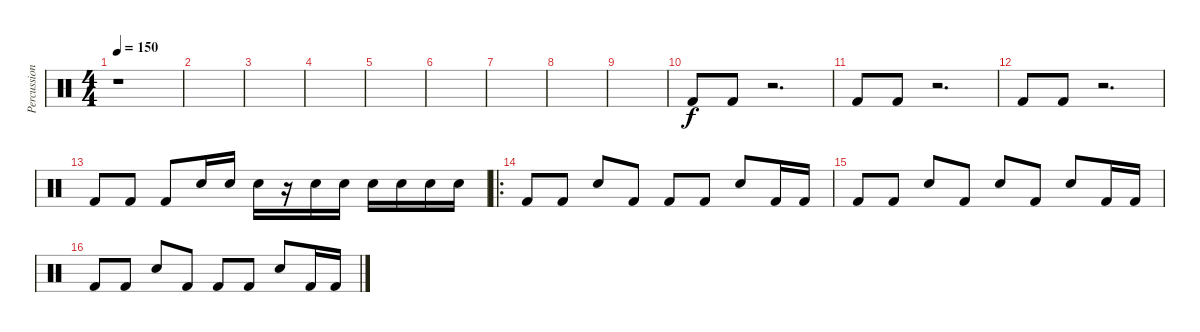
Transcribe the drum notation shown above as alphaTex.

\track ("Percussions" "Percussion") {instrument percussion}
\staff {score}
\articulation defaults
\ts (4 4)
\tempo 150
\clef neutral
\ks c
r.1{dy f} |
|
|
|
|
|
|
|
|
"Kick (hit) 2".8 "Kick (hit) 2".8 r.2{d} |
"Kick (hit) 2".8 "Kick (hit) 2".8 r.2{d} |
"Kick (hit) 2".8 "Kick (hit) 2".8 r.2{d} |
"Kick (hit) 2".8 "Kick (hit) 2".8 "Kick (hit) 2".8 "Snare (hit) 2".16 "Snare (hit) 2".16 "Snare (hit) 2".16 r.16 "Snare (hit) 2".16 "Snare (hit) 2".16 "Snare (hit) 2".16 "Snare (hit) 2".16 "Snare (hit) 2".16 "Snare (hit) 2".16 |
\ro "Kick (hit) 2".8 "Kick (hit) 2".8 "Electric Snare (hit)".8 "Kick (hit) 2".8 "Kick (hit) 2".8 "Kick (hit) 2".8 "Electric Snare (hit)".8 "Kick (hit) 2".16 "Kick (hit) 2".16
|
"Kick (hit) 2".8 "Kick (hit) 2".8 "Electric Snare (hit)".8 "Kick (hit) 2".8 "Snare (hit) 2".8 "Kick (hit) 2".8 "Electric Snare (hit)".8 "Kick (hit) 2".16 "Kick (hit) 2".16 |
"Kick (hit) 2".8 "Kick (hit) 2".8 "Electric Snare (hit)".8 "Kick (hit) 2".8 "Kick (hit) 2".8 "Kick (hit) 2".8 "Electric Snare (hit)".8 "Kick (hit) 2".16 "Kick (hit) 2".16
